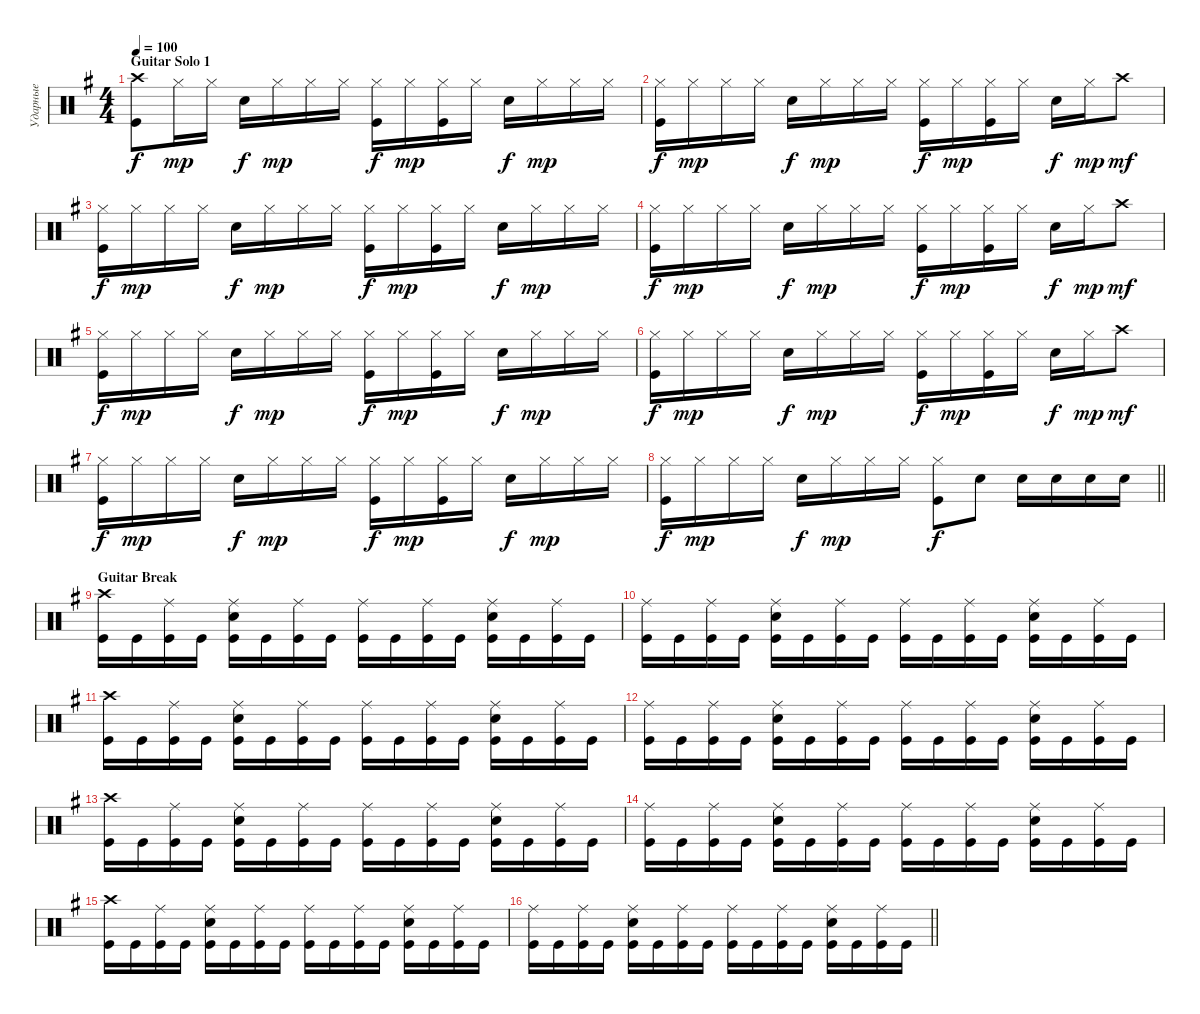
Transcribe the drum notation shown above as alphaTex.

\track ("Ударные" "Ударные") {instrument percussion}
\staff {score}
\articulation defaults
\ts (4 4)
\section ("" "Guitar Solo 1")
\tempo 100
\clef neutral
\ks eminor
("Crash high (hit)" "Kick (hit)").8{dy f} "Hi-Hat (closed)".16{dy mp} "Hi-Hat (closed)".16 "Snare (hit) 2".16{dy f} "Hi-Hat (closed)".16{dy mp} "Hi-Hat (closed)".16 "Hi-Hat (closed)".16 ("Hi-Hat (closed)" "Kick (hit)").16{dy f} "Hi-Hat (closed)".16{dy mp} ("Hi-Hat (closed)" "Kick (hit)").16 "Hi-Hat (closed)".16 "Snare (hit) 2".16{dy f} "Hi-Hat (closed)".16{dy mp} "Hi-Hat (closed)".16 "Hi-Hat (closed)".16 |
("Hi-Hat (closed)" "Kick (hit)").16{dy f} "Hi-Hat (closed)".16{dy mp} "Hi-Hat (closed)".16 "Hi-Hat (closed)".16 "Snare (hit) 2".16{dy f} "Hi-Hat (closed)".16{dy mp} "Hi-Hat (closed)".16 "Hi-Hat (closed)".16 ("Hi-Hat (closed)" "Kick (hit)").16{dy f} "Hi-Hat (closed)".16{dy mp} ("Hi-Hat (closed)" "Kick (hit)").16 "Hi-Hat (closed)".16 "Snare (hit) 2".16{dy f} "Hi-Hat (closed)".16{dy mp} "Crash high (hit)".8{dy mf} |
("Hi-Hat (closed)" "Kick (hit)").16{dy f} "Hi-Hat (closed)".16{dy mp} "Hi-Hat (closed)".16 "Hi-Hat (closed)".16 "Snare (hit) 2".16{dy f} "Hi-Hat (closed)".16{dy mp} "Hi-Hat (closed)".16 "Hi-Hat (closed)".16 ("Hi-Hat (closed)" "Kick (hit)").16{dy f} "Hi-Hat (closed)".16{dy mp} ("Hi-Hat (closed)" "Kick (hit)").16 "Hi-Hat (closed)".16 "Snare (hit) 2".16{dy f} "Hi-Hat (closed)".16{dy mp} "Hi-Hat (closed)".16 "Hi-Hat (closed)".16 |
("Hi-Hat (closed)" "Kick (hit)").16{dy f} "Hi-Hat (closed)".16{dy mp} "Hi-Hat (closed)".16 "Hi-Hat (closed)".16 "Snare (hit) 2".16{dy f} "Hi-Hat (closed)".16{dy mp} "Hi-Hat (closed)".16 "Hi-Hat (closed)".16 ("Hi-Hat (closed)" "Kick (hit)").16{dy f} "Hi-Hat (closed)".16{dy mp} ("Hi-Hat (closed)" "Kick (hit)").16 "Hi-Hat (closed)".16 "Snare (hit) 2".16{dy f} "Hi-Hat (closed)".16{dy mp} "Crash high (hit)".8{dy mf} |
("Hi-Hat (closed)" "Kick (hit)").16{dy f} "Hi-Hat (closed)".16{dy mp} "Hi-Hat (closed)".16 "Hi-Hat (closed)".16 "Snare (hit) 2".16{dy f} "Hi-Hat (closed)".16{dy mp} "Hi-Hat (closed)".16 "Hi-Hat (closed)".16 ("Hi-Hat (closed)" "Kick (hit)").16{dy f} "Hi-Hat (closed)".16{dy mp} ("Hi-Hat (closed)" "Kick (hit)").16 "Hi-Hat (closed)".16 "Snare (hit) 2".16{dy f} "Hi-Hat (closed)".16{dy mp} "Hi-Hat (closed)".16 "Hi-Hat (closed)".16 |
("Hi-Hat (closed)" "Kick (hit)").16{dy f} "Hi-Hat (closed)".16{dy mp} "Hi-Hat (closed)".16 "Hi-Hat (closed)".16 "Snare (hit) 2".16{dy f} "Hi-Hat (closed)".16{dy mp} "Hi-Hat (closed)".16 "Hi-Hat (closed)".16 ("Hi-Hat (closed)" "Kick (hit)").16{dy f} "Hi-Hat (closed)".16{dy mp} ("Hi-Hat (closed)" "Kick (hit)").16 "Hi-Hat (closed)".16 "Snare (hit) 2".16{dy f} "Hi-Hat (closed)".16{dy mp} "Crash high (hit)".8{dy mf} |
("Hi-Hat (closed)" "Kick (hit)").16{dy f} "Hi-Hat (closed)".16{dy mp} "Hi-Hat (closed)".16 "Hi-Hat (closed)".16 "Snare (hit) 2".16{dy f} "Hi-Hat (closed)".16{dy mp} "Hi-Hat (closed)".16 "Hi-Hat (closed)".16 ("Hi-Hat (closed)" "Kick (hit)").16{dy f} "Hi-Hat (closed)".16{dy mp} ("Hi-Hat (closed)" "Kick (hit)").16 "Hi-Hat (closed)".16 "Snare (hit) 2".16{dy f} "Hi-Hat (closed)".16{dy mp} "Hi-Hat (closed)".16 "Hi-Hat (closed)".16 |
\barLineRight lightlight
("Hi-Hat (closed)" "Kick (hit)").16{dy f} "Hi-Hat (closed)".16{dy mp} "Hi-Hat (closed)".16 "Hi-Hat (closed)".16 "Snare (hit) 2".16{dy f} "Hi-Hat (closed)".16{dy mp} "Hi-Hat (closed)".16 "Hi-Hat (closed)".16 ("Hi-Hat (closed)" "Kick (hit)").8{dy f} "Snare (hit) 2".8 "Snare (hit) 2".16 "Snare (hit) 2".16 "Snare (hit) 2".16 "Snare (hit) 2".16 |
\section ("" "Guitar Break")
("Kick (hit)" "Crash high (hit)").16 "Kick (hit)".16 ("Kick (hit)" "Ride (middle)").16 "Kick (hit)".16 ("Kick (hit)" "Snare (hit) 2" "Ride (middle)").16 "Kick (hit)".16 ("Kick (hit)" "Ride (middle)").16 "Kick (hit)".16 ("Kick (hit)" "Ride (middle)").16 "Kick (hit)".16 ("Kick (hit)" "Ride (middle)").16 "Kick (hit)".16 ("Kick (hit)" "Snare (hit) 2" "Ride (middle)").16 "Kick (hit)".16 ("Kick (hit)" "Ride (middle)").16 "Kick (hit)".16 |
("Kick (hit)" "Ride (middle)").16 "Kick (hit)".16 ("Kick (hit)" "Ride (middle)").16 "Kick (hit)".16 ("Kick (hit)" "Snare (hit) 2" "Ride (middle)").16 "Kick (hit)".16 ("Kick (hit)" "Ride (middle)").16 "Kick (hit)".16 ("Kick (hit)" "Ride (middle)").16 "Kick (hit)".16 ("Kick (hit)" "Ride (middle)").16 "Kick (hit)".16 ("Kick (hit)" "Snare (hit) 2" "Ride (middle)").16 "Kick (hit)".16 ("Kick (hit)" "Ride (middle)").16 "Kick (hit)".16 |
("Kick (hit)" "Crash high (hit)").16 "Kick (hit)".16 ("Kick (hit)" "Ride (middle)").16 "Kick (hit)".16 ("Kick (hit)" "Snare (hit) 2" "Ride (middle)").16 "Kick (hit)".16 ("Kick (hit)" "Ride (middle)").16 "Kick (hit)".16 ("Kick (hit)" "Ride (middle)").16 "Kick (hit)".16 ("Kick (hit)" "Ride (middle)").16 "Kick (hit)".16 ("Kick (hit)" "Snare (hit) 2" "Ride (middle)").16 "Kick (hit)".16 ("Kick (hit)" "Ride (middle)").16 "Kick (hit)".16 |
("Kick (hit)" "Ride (middle)").16 "Kick (hit)".16 ("Kick (hit)" "Ride (middle)").16 "Kick (hit)".16 ("Kick (hit)" "Snare (hit) 2" "Ride (middle)").16 "Kick (hit)".16 ("Kick (hit)" "Ride (middle)").16 "Kick (hit)".16 ("Kick (hit)" "Ride (middle)").16 "Kick (hit)".16 ("Kick (hit)" "Ride (middle)").16 "Kick (hit)".16 ("Kick (hit)" "Snare (hit) 2" "Ride (middle)").16 "Kick (hit)".16 ("Kick (hit)" "Ride (middle)").16 "Kick (hit)".16 |
("Kick (hit)" "Crash high (hit)").16 "Kick (hit)".16 ("Kick (hit)" "Ride (middle)").16 "Kick (hit)".16 ("Kick (hit)" "Snare (hit) 2" "Ride (middle)").16 "Kick (hit)".16 ("Kick (hit)" "Ride (middle)").16 "Kick (hit)".16 ("Kick (hit)" "Ride (middle)").16 "Kick (hit)".16 ("Kick (hit)" "Ride (middle)").16 "Kick (hit)".16 ("Kick (hit)" "Snare (hit) 2" "Ride (middle)").16 "Kick (hit)".16 ("Kick (hit)" "Ride (middle)").16 "Kick (hit)".16 |
("Kick (hit)" "Ride (middle)").16 "Kick (hit)".16 ("Kick (hit)" "Ride (middle)").16 "Kick (hit)".16 ("Kick (hit)" "Snare (hit) 2" "Ride (middle)").16 "Kick (hit)".16 ("Kick (hit)" "Ride (middle)").16 "Kick (hit)".16 ("Kick (hit)" "Ride (middle)").16 "Kick (hit)".16 ("Kick (hit)" "Ride (middle)").16 "Kick (hit)".16 ("Kick (hit)" "Snare (hit) 2" "Ride (middle)").16 "Kick (hit)".16 ("Kick (hit)" "Ride (middle)").16 "Kick (hit)".16 |
("Kick (hit)" "Crash high (hit)").16 "Kick (hit)".16 ("Kick (hit)" "Ride (middle)").16 "Kick (hit)".16 ("Kick (hit)" "Snare (hit) 2" "Ride (middle)").16 "Kick (hit)".16 ("Kick (hit)" "Ride (middle)").16 "Kick (hit)".16 ("Kick (hit)" "Ride (middle)").16 "Kick (hit)".16 ("Kick (hit)" "Ride (middle)").16 "Kick (hit)".16 ("Kick (hit)" "Snare (hit) 2" "Ride (middle)").16 "Kick (hit)".16 ("Kick (hit)" "Ride (middle)").16 "Kick (hit)".16 |
\barLineRight lightlight
("Kick (hit)" "Ride (middle)").16 "Kick (hit)".16 ("Kick (hit)" "Ride (middle)").16 "Kick (hit)".16 ("Kick (hit)" "Snare (hit) 2" "Ride (middle)").16 "Kick (hit)".16 ("Kick (hit)" "Ride (middle)").16 "Kick (hit)".16 ("Kick (hit)" "Ride (middle)").16 "Kick (hit)".16 ("Kick (hit)" "Ride (middle)").16 "Kick (hit)".16 ("Kick (hit)" "Snare (hit) 2" "Ride (middle)").16 "Kick (hit)".16 ("Kick (hit)" "Ride (middle)").16 "Kick (hit)".16
